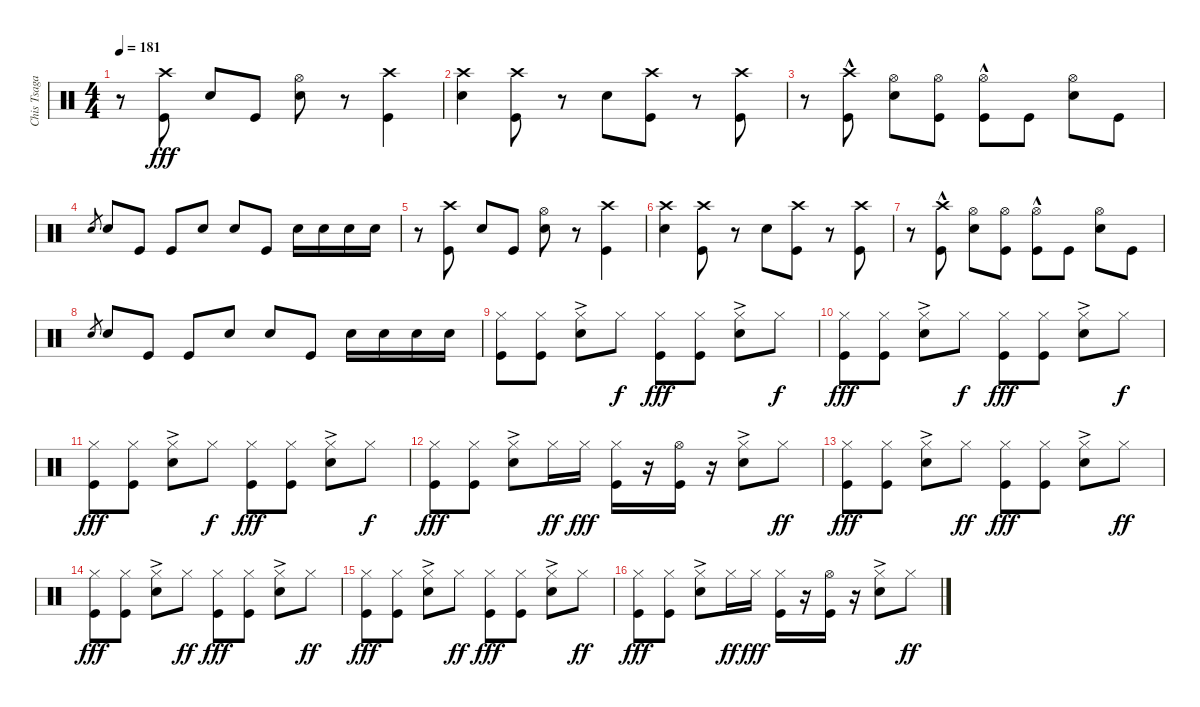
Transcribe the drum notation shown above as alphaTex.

\track ("Chis Tsagakis" "Chis Tsaga") {instrument percussion}
\staff {score}
\articulation defaults
\ts (4 4)
\tempo 181
\clef neutral
\ks c
r.8{dy fff} ("Crash high (hit)" "Kick (hit)").8 "Electric Snare (hit)".8 "Kick (hit)".8 ("Hi-Hat (open)" "Electric Snare (hit)").8 r.8 ("Crash high (hit)" "Kick (hit)").4 |
("Crash high (hit)" "Electric Snare (hit)").4 ("Crash high (hit)" "Kick (hit)").8 r.8 "Electric Snare (hit)".8 ("Crash high (hit)" "Kick (hit)").8 r.8 ("Crash high (hit)" "Kick (hit)").8 |
r.8 ("Crash high (hit)"{hac} "Kick (hit)").8 ("Hi-Hat (open)" "Electric Snare (hit)").8 ("Hi-Hat (open)" "Kick (hit)").8 ("Hi-Hat (open)"{hac} "Kick (hit)").8 "Kick (hit)".8 ("Hi-Hat (open)" "Electric Snare (hit)").8 "Kick (hit)".8 |
"Electric Snare (hit)".8{gr} "Electric Snare (hit)".8 "Kick (hit)".8 "Kick (hit)".8 "Electric Snare (hit)".8 "Electric Snare (hit)".8 "Kick (hit)".8 "Electric Snare (hit)".16 "Electric Snare (hit)".16 "Electric Snare (hit)".16 "Electric Snare (hit)".16 |
r.8 ("Crash high (hit)" "Kick (hit)").8 "Electric Snare (hit)".8 "Kick (hit)".8 ("Hi-Hat (open)" "Electric Snare (hit)").8 r.8 ("Crash high (hit)" "Kick (hit)").4 |
("Crash high (hit)" "Electric Snare (hit)").4 ("Crash high (hit)" "Kick (hit)").8 r.8 "Electric Snare (hit)".8 ("Crash high (hit)" "Kick (hit)").8 r.8 ("Crash high (hit)" "Kick (hit)").8 |
r.8 ("Crash high (hit)"{hac} "Kick (hit)").8 ("Hi-Hat (open)" "Electric Snare (hit)").8 ("Hi-Hat (open)" "Kick (hit)").8 ("Hi-Hat (open)"{hac} "Kick (hit)").8 "Kick (hit)".8 ("Hi-Hat (open)" "Electric Snare (hit)").8 "Kick (hit)".8 |
"Electric Snare (hit)".8{gr} "Electric Snare (hit)".8 "Kick (hit)".8 "Kick (hit)".8 "Electric Snare (hit)".8 "Electric Snare (hit)".8 "Kick (hit)".8 "Electric Snare (hit)".16 "Electric Snare (hit)".16 "Electric Snare (hit)".16 "Electric Snare (hit)".16 |
("Hi-Hat (closed)" "Kick (hit)").8 ("Hi-Hat (closed)" "Kick (hit)").8 ("Hi-Hat (closed)"{ac} "Electric Snare (hit)").8 "Hi-Hat (closed)".8{dy f} ("Hi-Hat (closed)" "Kick (hit)").8{dy fff} ("Hi-Hat (closed)" "Kick (hit)").8 ("Hi-Hat (closed)"{ac} "Electric Snare (hit)").8 "Hi-Hat (closed)".8{dy f} |
("Hi-Hat (closed)" "Kick (hit)").8{dy fff} ("Hi-Hat (closed)" "Kick (hit)").8 ("Hi-Hat (closed)"{ac} "Electric Snare (hit)").8 "Hi-Hat (closed)".8{dy f} ("Hi-Hat (closed)" "Kick (hit)").8{dy fff} ("Hi-Hat (closed)" "Kick (hit)").8 ("Hi-Hat (closed)"{ac} "Electric Snare (hit)").8 "Hi-Hat (closed)".8{dy f} |
("Hi-Hat (closed)" "Kick (hit)").8{dy fff} ("Hi-Hat (closed)" "Kick (hit)").8 ("Hi-Hat (closed)"{ac} "Electric Snare (hit)").8 "Hi-Hat (closed)".8{dy f} ("Hi-Hat (closed)" "Kick (hit)").8{dy fff} ("Hi-Hat (closed)" "Kick (hit)").8 ("Hi-Hat (closed)"{ac} "Electric Snare (hit)").8 "Hi-Hat (closed)".8{dy f} |
("Hi-Hat (closed)" "Kick (hit)").8{dy fff} ("Hi-Hat (closed)" "Kick (hit)").8 ("Hi-Hat (closed)"{ac} "Electric Snare (hit)").8 "Hi-Hat (closed)".16{dy ff} "Hi-Hat (closed)".16{dy fff} ("Hi-Hat (closed)" "Kick (hit)").16 r.16 ("Hi-Hat (open)" "Kick (hit)").16 r.16 ("Hi-Hat (closed)"{ac} "Electric Snare (hit)").8 "Hi-Hat (closed)".8{dy ff} |
("Hi-Hat (closed)" "Kick (hit)").8{dy fff} ("Hi-Hat (closed)" "Kick (hit)").8 ("Hi-Hat (closed)"{ac} "Electric Snare (hit)").8 "Hi-Hat (closed)".8{dy ff} ("Hi-Hat (closed)" "Kick (hit)").8{dy fff} ("Hi-Hat (closed)" "Kick (hit)").8 ("Hi-Hat (closed)"{ac} "Electric Snare (hit)").8 "Hi-Hat (closed)".8{dy ff} |
("Hi-Hat (closed)" "Kick (hit)").8{dy fff} ("Hi-Hat (closed)" "Kick (hit)").8 ("Hi-Hat (closed)"{ac} "Electric Snare (hit)").8 "Hi-Hat (closed)".8{dy ff} ("Hi-Hat (closed)" "Kick (hit)").8{dy fff} ("Hi-Hat (closed)" "Kick (hit)").8 ("Hi-Hat (closed)"{ac} "Electric Snare (hit)").8 "Hi-Hat (closed)".8{dy ff} |
("Hi-Hat (closed)" "Kick (hit)").8{dy fff} ("Hi-Hat (closed)" "Kick (hit)").8 ("Hi-Hat (closed)"{ac} "Electric Snare (hit)").8 "Hi-Hat (closed)".8{dy ff} ("Hi-Hat (closed)" "Kick (hit)").8{dy fff} ("Hi-Hat (closed)" "Kick (hit)").8 ("Hi-Hat (closed)"{ac} "Electric Snare (hit)").8 "Hi-Hat (closed)".8{dy ff} |
("Hi-Hat (closed)" "Kick (hit)").8{dy fff} ("Hi-Hat (closed)" "Kick (hit)").8 ("Hi-Hat (closed)"{ac} "Electric Snare (hit)").8 "Hi-Hat (closed)".16{dy ff} "Hi-Hat (closed)".16{dy fff} ("Hi-Hat (closed)" "Kick (hit)").16 r.16 ("Hi-Hat (open)" "Kick (hit)").16 r.16 ("Hi-Hat (closed)"{ac} "Electric Snare (hit)").8 "Hi-Hat (closed)".8{dy ff}
